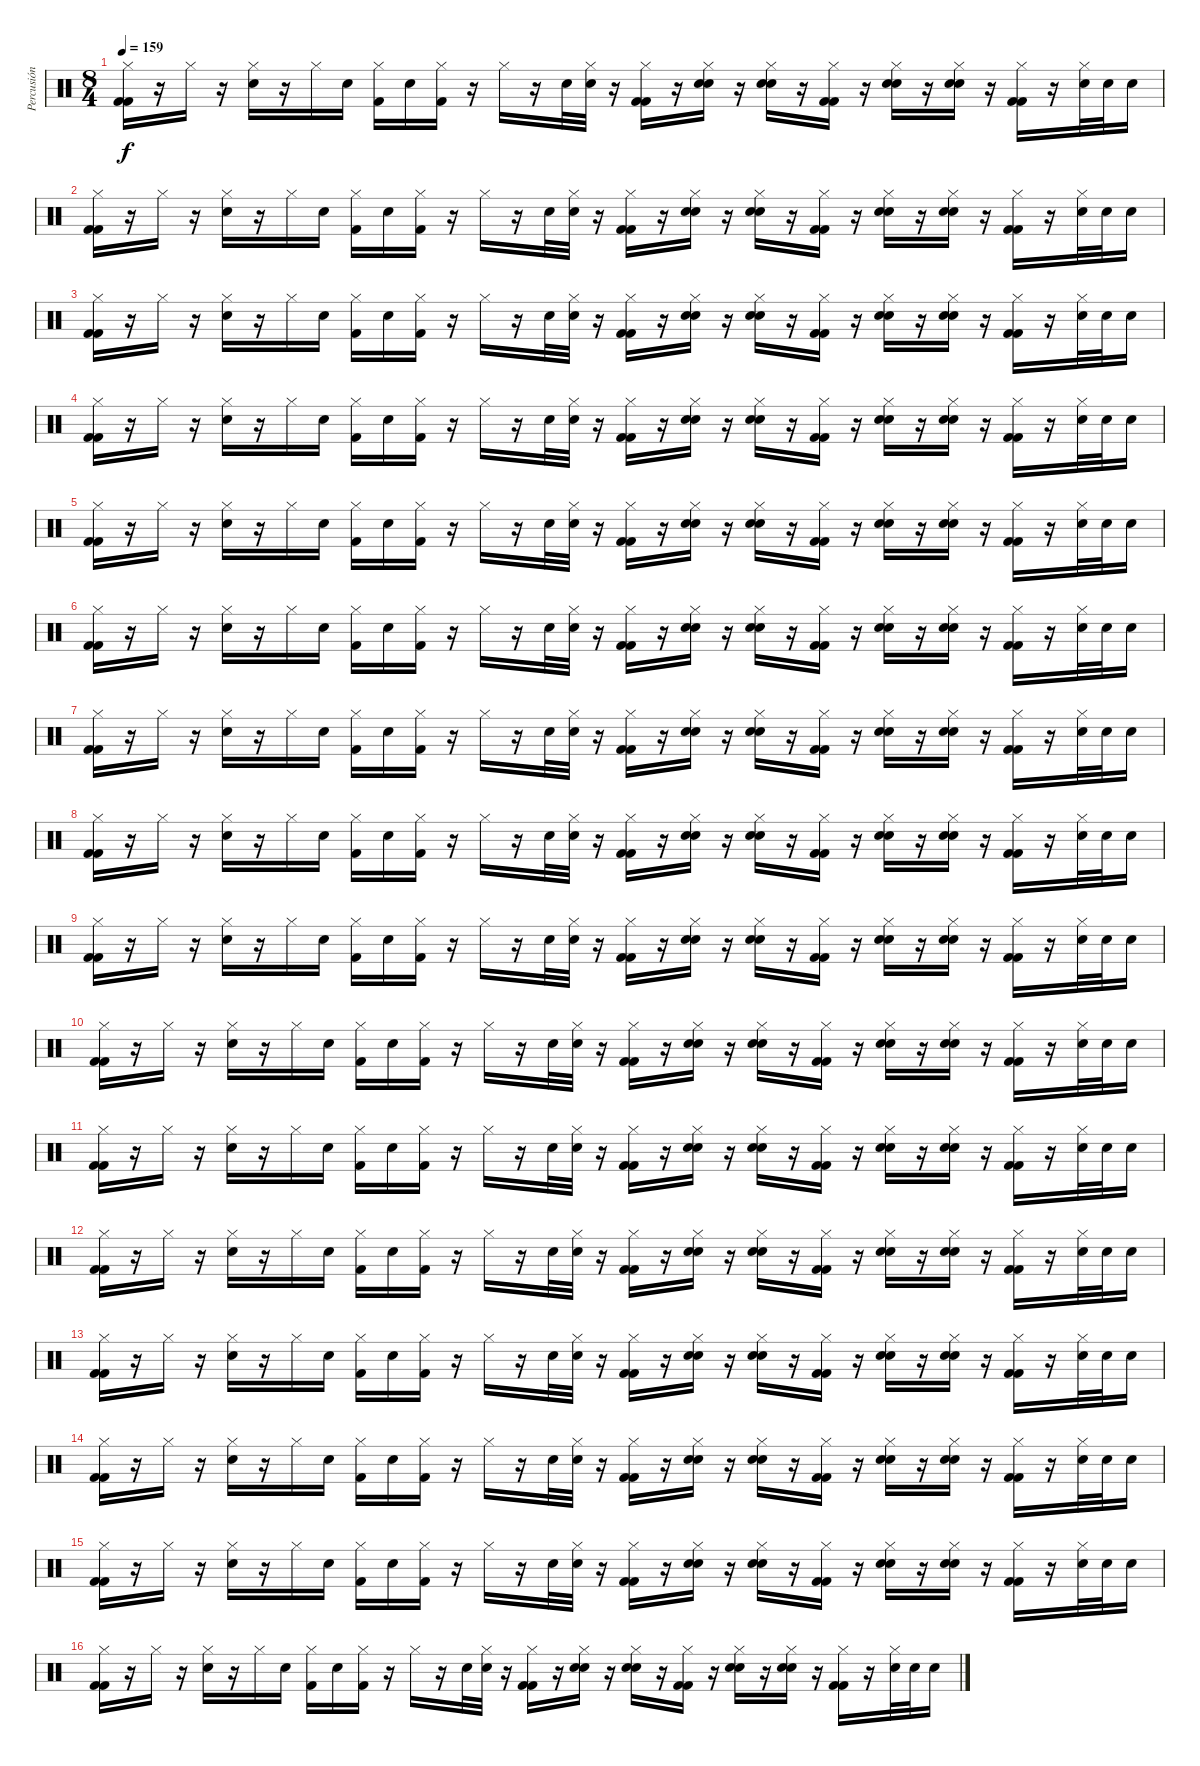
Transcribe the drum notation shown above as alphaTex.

\track ("Percusión" "Percusión") {instrument percussion}
\staff {score}
\articulation defaults
\ts (8 4)
\tempo 159
\clef neutral
\ks c
("Hi-Hat (closed)" "Kick (hit) 2" "Kick (hit) 2").16{dy f} r.16 "Hi-Hat (closed)".16 r.16 ("Hi-Hat (closed)" "Electric Snare (hit)").16 r.16 "Hi-Hat (closed)".16 "Electric Snare (hit)".16 ("Hi-Hat (closed)" "Kick (hit) 2").16 "Electric Snare (hit)".16 ("Hi-Hat (closed)" "Kick (hit) 2").16 r.16 "Hi-Hat (closed)".16 r.16 "Electric Snare (hit)".32 ("Hi-Hat (closed)" "Electric Snare (hit)").32 r.16 ("Hi-Hat (closed)" "Kick (hit) 2" "Kick (hit) 2").16 r.16 ("Hi-Hat (closed)" "Electric Snare (hit)" "Electric Snare (hit)").16 r.16 ("Hi-Hat (closed)" "Electric Snare (hit)" "Electric Snare (hit)").16 r.16 ("Hi-Hat (closed)" "Kick (hit) 2" "Kick (hit) 2").16 r.16 ("Hi-Hat (closed)" "Electric Snare (hit)" "Electric Snare (hit)").16 r.16 ("Hi-Hat (closed)" "Electric Snare (hit)" "Electric Snare (hit)").16 r.16 ("Hi-Hat (closed)" "Kick (hit) 2" "Kick (hit) 2").16 r.16 ("Hi-Hat (closed)" "Electric Snare (hit)").32 "Electric Snare (hit)".32 "Electric Snare (hit)".16 |
("Hi-Hat (closed)" "Kick (hit) 2" "Kick (hit) 2").16 r.16 "Hi-Hat (closed)".16 r.16 ("Hi-Hat (closed)" "Electric Snare (hit)").16 r.16 "Hi-Hat (closed)".16 "Electric Snare (hit)".16 ("Hi-Hat (closed)" "Kick (hit) 2").16 "Electric Snare (hit)".16 ("Hi-Hat (closed)" "Kick (hit) 2").16 r.16 "Hi-Hat (closed)".16 r.16 "Electric Snare (hit)".32 ("Hi-Hat (closed)" "Electric Snare (hit)").32 r.16 ("Hi-Hat (closed)" "Kick (hit) 2" "Kick (hit) 2").16 r.16 ("Hi-Hat (closed)" "Electric Snare (hit)" "Electric Snare (hit)").16 r.16 ("Hi-Hat (closed)" "Electric Snare (hit)" "Electric Snare (hit)").16 r.16 ("Hi-Hat (closed)" "Kick (hit) 2" "Kick (hit) 2").16 r.16 ("Hi-Hat (closed)" "Electric Snare (hit)" "Electric Snare (hit)").16 r.16 ("Hi-Hat (closed)" "Electric Snare (hit)" "Electric Snare (hit)").16 r.16 ("Hi-Hat (closed)" "Kick (hit) 2" "Kick (hit) 2").16 r.16 ("Hi-Hat (closed)" "Electric Snare (hit)").32 "Electric Snare (hit)".32 "Electric Snare (hit)".16 |
("Hi-Hat (closed)" "Kick (hit) 2" "Kick (hit) 2").16 r.16 "Hi-Hat (closed)".16 r.16 ("Hi-Hat (closed)" "Electric Snare (hit)").16 r.16 "Hi-Hat (closed)".16 "Electric Snare (hit)".16 ("Hi-Hat (closed)" "Kick (hit) 2").16 "Electric Snare (hit)".16 ("Hi-Hat (closed)" "Kick (hit) 2").16 r.16 "Hi-Hat (closed)".16 r.16 "Electric Snare (hit)".32 ("Hi-Hat (closed)" "Electric Snare (hit)").32 r.16 ("Hi-Hat (closed)" "Kick (hit) 2" "Kick (hit) 2").16 r.16 ("Hi-Hat (closed)" "Electric Snare (hit)" "Electric Snare (hit)").16 r.16 ("Hi-Hat (closed)" "Electric Snare (hit)" "Electric Snare (hit)").16 r.16 ("Hi-Hat (closed)" "Kick (hit) 2" "Kick (hit) 2").16 r.16 ("Hi-Hat (closed)" "Electric Snare (hit)" "Electric Snare (hit)").16 r.16 ("Hi-Hat (closed)" "Electric Snare (hit)" "Electric Snare (hit)").16 r.16 ("Hi-Hat (closed)" "Kick (hit) 2" "Kick (hit) 2").16 r.16 ("Hi-Hat (closed)" "Electric Snare (hit)").32 "Electric Snare (hit)".32 "Electric Snare (hit)".16 |
("Hi-Hat (closed)" "Kick (hit) 2" "Kick (hit) 2").16 r.16 "Hi-Hat (closed)".16 r.16 ("Hi-Hat (closed)" "Electric Snare (hit)").16 r.16 "Hi-Hat (closed)".16 "Electric Snare (hit)".16 ("Hi-Hat (closed)" "Kick (hit) 2").16 "Electric Snare (hit)".16 ("Hi-Hat (closed)" "Kick (hit) 2").16 r.16 "Hi-Hat (closed)".16 r.16 "Electric Snare (hit)".32 ("Hi-Hat (closed)" "Electric Snare (hit)").32 r.16 ("Hi-Hat (closed)" "Kick (hit) 2" "Kick (hit) 2").16 r.16 ("Hi-Hat (closed)" "Electric Snare (hit)" "Electric Snare (hit)").16 r.16 ("Hi-Hat (closed)" "Electric Snare (hit)" "Electric Snare (hit)").16 r.16 ("Hi-Hat (closed)" "Kick (hit) 2" "Kick (hit) 2").16 r.16 ("Hi-Hat (closed)" "Electric Snare (hit)" "Electric Snare (hit)").16 r.16 ("Hi-Hat (closed)" "Electric Snare (hit)" "Electric Snare (hit)").16 r.16 ("Hi-Hat (closed)" "Kick (hit) 2" "Kick (hit) 2").16 r.16 ("Hi-Hat (closed)" "Electric Snare (hit)").32 "Electric Snare (hit)".32 "Electric Snare (hit)".16 |
("Hi-Hat (closed)" "Kick (hit) 2" "Kick (hit) 2").16 r.16 "Hi-Hat (closed)".16 r.16 ("Hi-Hat (closed)" "Electric Snare (hit)").16 r.16 "Hi-Hat (closed)".16 "Electric Snare (hit)".16 ("Hi-Hat (closed)" "Kick (hit) 2").16 "Electric Snare (hit)".16 ("Hi-Hat (closed)" "Kick (hit) 2").16 r.16 "Hi-Hat (closed)".16 r.16 "Electric Snare (hit)".32 ("Hi-Hat (closed)" "Electric Snare (hit)").32 r.16 ("Hi-Hat (closed)" "Kick (hit) 2" "Kick (hit) 2").16 r.16 ("Hi-Hat (closed)" "Electric Snare (hit)" "Electric Snare (hit)").16 r.16 ("Hi-Hat (closed)" "Electric Snare (hit)" "Electric Snare (hit)").16 r.16 ("Hi-Hat (closed)" "Kick (hit) 2" "Kick (hit) 2").16 r.16 ("Hi-Hat (closed)" "Electric Snare (hit)" "Electric Snare (hit)").16 r.16 ("Hi-Hat (closed)" "Electric Snare (hit)" "Electric Snare (hit)").16 r.16 ("Hi-Hat (closed)" "Kick (hit) 2" "Kick (hit) 2").16 r.16 ("Hi-Hat (closed)" "Electric Snare (hit)").32 "Electric Snare (hit)".32 "Electric Snare (hit)".16 |
("Hi-Hat (closed)" "Kick (hit) 2" "Kick (hit) 2").16 r.16 "Hi-Hat (closed)".16 r.16 ("Hi-Hat (closed)" "Electric Snare (hit)").16 r.16 "Hi-Hat (closed)".16 "Electric Snare (hit)".16 ("Hi-Hat (closed)" "Kick (hit) 2").16 "Electric Snare (hit)".16 ("Hi-Hat (closed)" "Kick (hit) 2").16 r.16 "Hi-Hat (closed)".16 r.16 "Electric Snare (hit)".32 ("Hi-Hat (closed)" "Electric Snare (hit)").32 r.16 ("Hi-Hat (closed)" "Kick (hit) 2" "Kick (hit) 2").16 r.16 ("Hi-Hat (closed)" "Electric Snare (hit)" "Electric Snare (hit)").16 r.16 ("Hi-Hat (closed)" "Electric Snare (hit)" "Electric Snare (hit)").16 r.16 ("Hi-Hat (closed)" "Kick (hit) 2" "Kick (hit) 2").16 r.16 ("Hi-Hat (closed)" "Electric Snare (hit)" "Electric Snare (hit)").16 r.16 ("Hi-Hat (closed)" "Electric Snare (hit)" "Electric Snare (hit)").16 r.16 ("Hi-Hat (closed)" "Kick (hit) 2" "Kick (hit) 2").16 r.16 ("Hi-Hat (closed)" "Electric Snare (hit)").32 "Electric Snare (hit)".32 "Electric Snare (hit)".16 |
("Hi-Hat (closed)" "Kick (hit) 2" "Kick (hit) 2").16 r.16 "Hi-Hat (closed)".16 r.16 ("Hi-Hat (closed)" "Electric Snare (hit)").16 r.16 "Hi-Hat (closed)".16 "Electric Snare (hit)".16 ("Hi-Hat (closed)" "Kick (hit) 2").16 "Electric Snare (hit)".16 ("Hi-Hat (closed)" "Kick (hit) 2").16 r.16 "Hi-Hat (closed)".16 r.16 "Electric Snare (hit)".32 ("Hi-Hat (closed)" "Electric Snare (hit)").32 r.16 ("Hi-Hat (closed)" "Kick (hit) 2" "Kick (hit) 2").16 r.16 ("Hi-Hat (closed)" "Electric Snare (hit)" "Electric Snare (hit)").16 r.16 ("Hi-Hat (closed)" "Electric Snare (hit)" "Electric Snare (hit)").16 r.16 ("Hi-Hat (closed)" "Kick (hit) 2" "Kick (hit) 2").16 r.16 ("Hi-Hat (closed)" "Electric Snare (hit)" "Electric Snare (hit)").16 r.16 ("Hi-Hat (closed)" "Electric Snare (hit)" "Electric Snare (hit)").16 r.16 ("Hi-Hat (closed)" "Kick (hit) 2" "Kick (hit) 2").16 r.16 ("Hi-Hat (closed)" "Electric Snare (hit)").32 "Electric Snare (hit)".32 "Electric Snare (hit)".16 |
("Hi-Hat (closed)" "Kick (hit) 2" "Kick (hit) 2").16 r.16 "Hi-Hat (closed)".16 r.16 ("Hi-Hat (closed)" "Electric Snare (hit)").16 r.16 "Hi-Hat (closed)".16 "Electric Snare (hit)".16 ("Hi-Hat (closed)" "Kick (hit) 2").16 "Electric Snare (hit)".16 ("Hi-Hat (closed)" "Kick (hit) 2").16 r.16 "Hi-Hat (closed)".16 r.16 "Electric Snare (hit)".32 ("Hi-Hat (closed)" "Electric Snare (hit)").32 r.16 ("Hi-Hat (closed)" "Kick (hit) 2" "Kick (hit) 2").16 r.16 ("Hi-Hat (closed)" "Electric Snare (hit)" "Electric Snare (hit)").16 r.16 ("Hi-Hat (closed)" "Electric Snare (hit)" "Electric Snare (hit)").16 r.16 ("Hi-Hat (closed)" "Kick (hit) 2" "Kick (hit) 2").16 r.16 ("Hi-Hat (closed)" "Electric Snare (hit)" "Electric Snare (hit)").16 r.16 ("Hi-Hat (closed)" "Electric Snare (hit)" "Electric Snare (hit)").16 r.16 ("Hi-Hat (closed)" "Kick (hit) 2" "Kick (hit) 2").16 r.16 ("Hi-Hat (closed)" "Electric Snare (hit)").32 "Electric Snare (hit)".32 "Electric Snare (hit)".16 |
("Hi-Hat (closed)" "Kick (hit) 2" "Kick (hit) 2").16 r.16 "Hi-Hat (closed)".16 r.16 ("Hi-Hat (closed)" "Electric Snare (hit)").16 r.16 "Hi-Hat (closed)".16 "Electric Snare (hit)".16 ("Hi-Hat (closed)" "Kick (hit) 2").16 "Electric Snare (hit)".16 ("Hi-Hat (closed)" "Kick (hit) 2").16 r.16 "Hi-Hat (closed)".16 r.16 "Electric Snare (hit)".32 ("Hi-Hat (closed)" "Electric Snare (hit)").32 r.16 ("Hi-Hat (closed)" "Kick (hit) 2" "Kick (hit) 2").16 r.16 ("Hi-Hat (closed)" "Electric Snare (hit)" "Electric Snare (hit)").16 r.16 ("Hi-Hat (closed)" "Electric Snare (hit)" "Electric Snare (hit)").16 r.16 ("Hi-Hat (closed)" "Kick (hit) 2" "Kick (hit) 2").16 r.16 ("Hi-Hat (closed)" "Electric Snare (hit)" "Electric Snare (hit)").16 r.16 ("Hi-Hat (closed)" "Electric Snare (hit)" "Electric Snare (hit)").16 r.16 ("Hi-Hat (closed)" "Kick (hit) 2" "Kick (hit) 2").16 r.16 ("Hi-Hat (closed)" "Electric Snare (hit)").32 "Electric Snare (hit)".32 "Electric Snare (hit)".16 |
("Hi-Hat (closed)" "Kick (hit) 2" "Kick (hit) 2").16 r.16 "Hi-Hat (closed)".16 r.16 ("Hi-Hat (closed)" "Electric Snare (hit)").16 r.16 "Hi-Hat (closed)".16 "Electric Snare (hit)".16 ("Hi-Hat (closed)" "Kick (hit) 2").16 "Electric Snare (hit)".16 ("Hi-Hat (closed)" "Kick (hit) 2").16 r.16 "Hi-Hat (closed)".16 r.16 "Electric Snare (hit)".32 ("Hi-Hat (closed)" "Electric Snare (hit)").32 r.16 ("Hi-Hat (closed)" "Kick (hit) 2" "Kick (hit) 2").16 r.16 ("Hi-Hat (closed)" "Electric Snare (hit)" "Electric Snare (hit)").16 r.16 ("Hi-Hat (closed)" "Electric Snare (hit)" "Electric Snare (hit)").16 r.16 ("Hi-Hat (closed)" "Kick (hit) 2" "Kick (hit) 2").16 r.16 ("Hi-Hat (closed)" "Electric Snare (hit)" "Electric Snare (hit)").16 r.16 ("Hi-Hat (closed)" "Electric Snare (hit)" "Electric Snare (hit)").16 r.16 ("Hi-Hat (closed)" "Kick (hit) 2" "Kick (hit) 2").16 r.16 ("Hi-Hat (closed)" "Electric Snare (hit)").32 "Electric Snare (hit)".32 "Electric Snare (hit)".16 |
("Hi-Hat (closed)" "Kick (hit) 2" "Kick (hit) 2").16 r.16 "Hi-Hat (closed)".16 r.16 ("Hi-Hat (closed)" "Electric Snare (hit)").16 r.16 "Hi-Hat (closed)".16 "Electric Snare (hit)".16 ("Hi-Hat (closed)" "Kick (hit) 2").16 "Electric Snare (hit)".16 ("Hi-Hat (closed)" "Kick (hit) 2").16 r.16 "Hi-Hat (closed)".16 r.16 "Electric Snare (hit)".32 ("Hi-Hat (closed)" "Electric Snare (hit)").32 r.16 ("Hi-Hat (closed)" "Kick (hit) 2" "Kick (hit) 2").16 r.16 ("Hi-Hat (closed)" "Electric Snare (hit)" "Electric Snare (hit)").16 r.16 ("Hi-Hat (closed)" "Electric Snare (hit)" "Electric Snare (hit)").16 r.16 ("Hi-Hat (closed)" "Kick (hit) 2" "Kick (hit) 2").16 r.16 ("Hi-Hat (closed)" "Electric Snare (hit)" "Electric Snare (hit)").16 r.16 ("Hi-Hat (closed)" "Electric Snare (hit)" "Electric Snare (hit)").16 r.16 ("Hi-Hat (closed)" "Kick (hit) 2" "Kick (hit) 2").16 r.16 ("Hi-Hat (closed)" "Electric Snare (hit)").32 "Electric Snare (hit)".32 "Electric Snare (hit)".16 |
("Hi-Hat (closed)" "Kick (hit) 2" "Kick (hit) 2").16 r.16 "Hi-Hat (closed)".16 r.16 ("Hi-Hat (closed)" "Electric Snare (hit)").16 r.16 "Hi-Hat (closed)".16 "Electric Snare (hit)".16 ("Hi-Hat (closed)" "Kick (hit) 2").16 "Electric Snare (hit)".16 ("Hi-Hat (closed)" "Kick (hit) 2").16 r.16 "Hi-Hat (closed)".16 r.16 "Electric Snare (hit)".32 ("Hi-Hat (closed)" "Electric Snare (hit)").32 r.16 ("Hi-Hat (closed)" "Kick (hit) 2" "Kick (hit) 2").16 r.16 ("Hi-Hat (closed)" "Electric Snare (hit)" "Electric Snare (hit)").16 r.16 ("Hi-Hat (closed)" "Electric Snare (hit)" "Electric Snare (hit)").16 r.16 ("Hi-Hat (closed)" "Kick (hit) 2" "Kick (hit) 2").16 r.16 ("Hi-Hat (closed)" "Electric Snare (hit)" "Electric Snare (hit)").16 r.16 ("Hi-Hat (closed)" "Electric Snare (hit)" "Electric Snare (hit)").16 r.16 ("Hi-Hat (closed)" "Kick (hit) 2" "Kick (hit) 2").16 r.16 ("Hi-Hat (closed)" "Electric Snare (hit)").32 "Electric Snare (hit)".32 "Electric Snare (hit)".16 |
("Hi-Hat (closed)" "Kick (hit) 2" "Kick (hit) 2").16 r.16 "Hi-Hat (closed)".16 r.16 ("Hi-Hat (closed)" "Electric Snare (hit)").16 r.16 "Hi-Hat (closed)".16 "Electric Snare (hit)".16 ("Hi-Hat (closed)" "Kick (hit) 2").16 "Electric Snare (hit)".16 ("Hi-Hat (closed)" "Kick (hit) 2").16 r.16 "Hi-Hat (closed)".16 r.16 "Electric Snare (hit)".32 ("Hi-Hat (closed)" "Electric Snare (hit)").32 r.16 ("Hi-Hat (closed)" "Kick (hit) 2" "Kick (hit) 2").16 r.16 ("Hi-Hat (closed)" "Electric Snare (hit)" "Electric Snare (hit)").16 r.16 ("Hi-Hat (closed)" "Electric Snare (hit)" "Electric Snare (hit)").16 r.16 ("Hi-Hat (closed)" "Kick (hit) 2" "Kick (hit) 2").16 r.16 ("Hi-Hat (closed)" "Electric Snare (hit)" "Electric Snare (hit)").16 r.16 ("Hi-Hat (closed)" "Electric Snare (hit)" "Electric Snare (hit)").16 r.16 ("Hi-Hat (closed)" "Kick (hit) 2" "Kick (hit) 2").16 r.16 ("Hi-Hat (closed)" "Electric Snare (hit)").32 "Electric Snare (hit)".32 "Electric Snare (hit)".16 |
("Hi-Hat (closed)" "Kick (hit) 2" "Kick (hit) 2").16 r.16 "Hi-Hat (closed)".16 r.16 ("Hi-Hat (closed)" "Electric Snare (hit)").16 r.16 "Hi-Hat (closed)".16 "Electric Snare (hit)".16 ("Hi-Hat (closed)" "Kick (hit) 2").16 "Electric Snare (hit)".16 ("Hi-Hat (closed)" "Kick (hit) 2").16 r.16 "Hi-Hat (closed)".16 r.16 "Electric Snare (hit)".32 ("Hi-Hat (closed)" "Electric Snare (hit)").32 r.16 ("Hi-Hat (closed)" "Kick (hit) 2" "Kick (hit) 2").16 r.16 ("Hi-Hat (closed)" "Electric Snare (hit)" "Electric Snare (hit)").16 r.16 ("Hi-Hat (closed)" "Electric Snare (hit)" "Electric Snare (hit)").16 r.16 ("Hi-Hat (closed)" "Kick (hit) 2" "Kick (hit) 2").16 r.16 ("Hi-Hat (closed)" "Electric Snare (hit)" "Electric Snare (hit)").16 r.16 ("Hi-Hat (closed)" "Electric Snare (hit)" "Electric Snare (hit)").16 r.16 ("Hi-Hat (closed)" "Kick (hit) 2" "Kick (hit) 2").16 r.16 ("Hi-Hat (closed)" "Electric Snare (hit)").32 "Electric Snare (hit)".32 "Electric Snare (hit)".16 |
("Hi-Hat (closed)" "Kick (hit) 2" "Kick (hit) 2").16 r.16 "Hi-Hat (closed)".16 r.16 ("Hi-Hat (closed)" "Electric Snare (hit)").16 r.16 "Hi-Hat (closed)".16 "Electric Snare (hit)".16 ("Hi-Hat (closed)" "Kick (hit) 2").16 "Electric Snare (hit)".16 ("Hi-Hat (closed)" "Kick (hit) 2").16 r.16 "Hi-Hat (closed)".16 r.16 "Electric Snare (hit)".32 ("Hi-Hat (closed)" "Electric Snare (hit)").32 r.16 ("Hi-Hat (closed)" "Kick (hit) 2" "Kick (hit) 2").16 r.16 ("Hi-Hat (closed)" "Electric Snare (hit)" "Electric Snare (hit)").16 r.16 ("Hi-Hat (closed)" "Electric Snare (hit)" "Electric Snare (hit)").16 r.16 ("Hi-Hat (closed)" "Kick (hit) 2" "Kick (hit) 2").16 r.16 ("Hi-Hat (closed)" "Electric Snare (hit)" "Electric Snare (hit)").16 r.16 ("Hi-Hat (closed)" "Electric Snare (hit)" "Electric Snare (hit)").16 r.16 ("Hi-Hat (closed)" "Kick (hit) 2" "Kick (hit) 2").16 r.16 ("Hi-Hat (closed)" "Electric Snare (hit)").32 "Electric Snare (hit)".32 "Electric Snare (hit)".16 |
("Hi-Hat (closed)" "Kick (hit) 2" "Kick (hit) 2").16 r.16 "Hi-Hat (closed)".16 r.16 ("Hi-Hat (closed)" "Electric Snare (hit)").16 r.16 "Hi-Hat (closed)".16 "Electric Snare (hit)".16 ("Hi-Hat (closed)" "Kick (hit) 2").16 "Electric Snare (hit)".16 ("Hi-Hat (closed)" "Kick (hit) 2").16 r.16 "Hi-Hat (closed)".16 r.16 "Electric Snare (hit)".32 ("Hi-Hat (closed)" "Electric Snare (hit)").32 r.16 ("Hi-Hat (closed)" "Kick (hit) 2" "Kick (hit) 2").16 r.16 ("Hi-Hat (closed)" "Electric Snare (hit)" "Electric Snare (hit)").16 r.16 ("Hi-Hat (closed)" "Electric Snare (hit)" "Electric Snare (hit)").16 r.16 ("Hi-Hat (closed)" "Kick (hit) 2" "Kick (hit) 2").16 r.16 ("Hi-Hat (closed)" "Electric Snare (hit)" "Electric Snare (hit)").16 r.16 ("Hi-Hat (closed)" "Electric Snare (hit)" "Electric Snare (hit)").16 r.16 ("Hi-Hat (closed)" "Kick (hit) 2" "Kick (hit) 2").16 r.16 ("Hi-Hat (closed)" "Electric Snare (hit)").32 "Electric Snare (hit)".32 "Electric Snare (hit)".16
